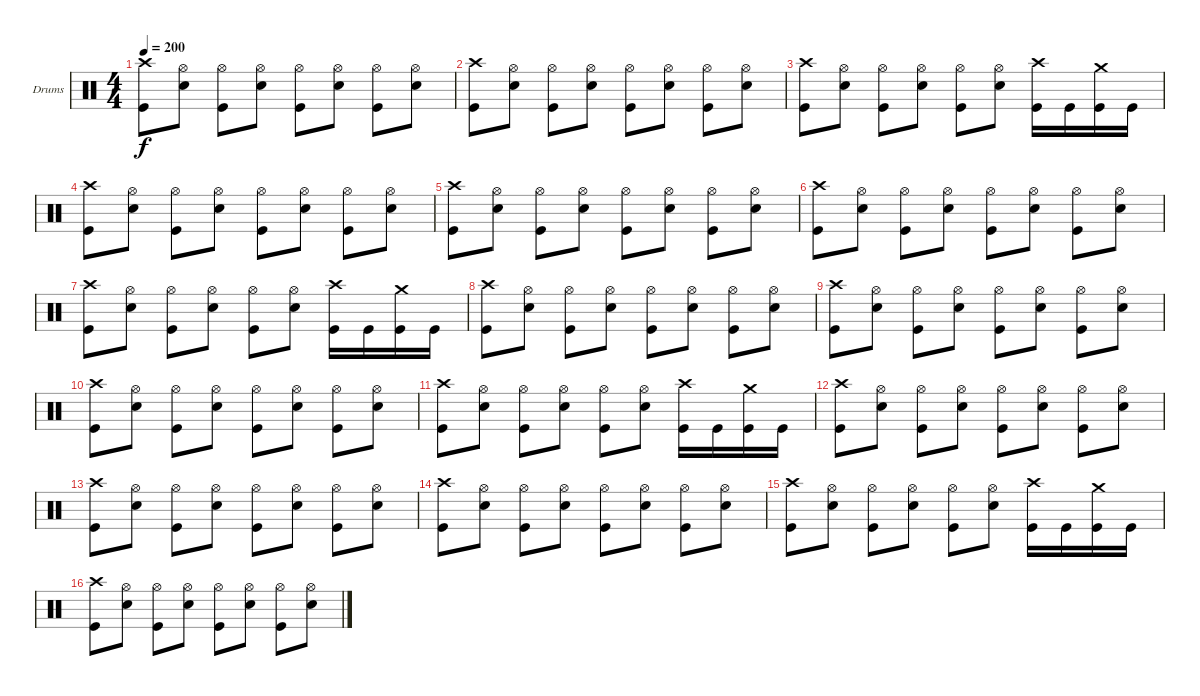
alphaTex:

\bracketExtendMode groupsimilarinstruments
\firstSystemTrackNameOrientation horizontal
\otherSystemsTrackNameOrientation horizontal
\track ("Drumkit" "Drums") {instrument percussion}
\staff {score}
\articulation defaults
\ts (4 4)
\tempo 200
\clef neutral
\ks c
("Crash high (hit)" "Kick (hit)").8{dy f} ("Hi-Hat (open)" "Snare (hit) 2").8 ("Hi-Hat (open)" "Kick (hit)").8 ("Hi-Hat (open)" "Snare (hit) 2").8 ("Hi-Hat (open)" "Kick (hit)").8 ("Hi-Hat (open)" "Snare (hit) 2").8 ("Hi-Hat (open)" "Kick (hit)").8 ("Hi-Hat (open)" "Snare (hit) 2").8 |
("Crash high (hit)" "Kick (hit)").8 ("Hi-Hat (open)" "Snare (hit) 2").8 ("Hi-Hat (open)" "Kick (hit)").8 ("Hi-Hat (open)" "Snare (hit) 2").8 ("Hi-Hat (open)" "Kick (hit)").8 ("Hi-Hat (open)" "Snare (hit) 2").8 ("Hi-Hat (open)" "Kick (hit)").8 ("Hi-Hat (open)" "Snare (hit) 2").8 |
("Crash high (hit)" "Kick (hit)").8 ("Hi-Hat (open)" "Snare (hit) 2").8 ("Hi-Hat (open)" "Kick (hit)").8 ("Hi-Hat (open)" "Snare (hit) 2").8 ("Hi-Hat (open)" "Kick (hit)").8 ("Hi-Hat (open)" "Snare (hit) 2").8 ("Crash high (hit)" "Kick (hit)").16 "Kick (hit)".16 ("Crash medium (hit)" "Kick (hit)").16 "Kick (hit)".16 |
("Crash high (hit)" "Kick (hit)").8 ("Hi-Hat (open)" "Snare (hit) 2").8 ("Hi-Hat (open)" "Kick (hit)").8 ("Hi-Hat (open)" "Snare (hit) 2").8 ("Hi-Hat (open)" "Kick (hit)").8 ("Hi-Hat (open)" "Snare (hit) 2").8 ("Hi-Hat (open)" "Kick (hit)").8 ("Hi-Hat (open)" "Snare (hit) 2").8 |
("Crash high (hit)" "Kick (hit)").8 ("Hi-Hat (open)" "Snare (hit) 2").8 ("Hi-Hat (open)" "Kick (hit)").8 ("Hi-Hat (open)" "Snare (hit) 2").8 ("Hi-Hat (open)" "Kick (hit)").8 ("Hi-Hat (open)" "Snare (hit) 2").8 ("Hi-Hat (open)" "Kick (hit)").8 ("Hi-Hat (open)" "Snare (hit) 2").8 |
("Crash high (hit)" "Kick (hit)").8 ("Hi-Hat (open)" "Snare (hit) 2").8 ("Hi-Hat (open)" "Kick (hit)").8 ("Hi-Hat (open)" "Snare (hit) 2").8 ("Hi-Hat (open)" "Kick (hit)").8 ("Hi-Hat (open)" "Snare (hit) 2").8 ("Hi-Hat (open)" "Kick (hit)").8 ("Hi-Hat (open)" "Snare (hit) 2").8 |
("Crash high (hit)" "Kick (hit)").8 ("Hi-Hat (open)" "Snare (hit) 2").8 ("Hi-Hat (open)" "Kick (hit)").8 ("Hi-Hat (open)" "Snare (hit) 2").8 ("Hi-Hat (open)" "Kick (hit)").8 ("Hi-Hat (open)" "Snare (hit) 2").8 ("Crash high (hit)" "Kick (hit)").16 "Kick (hit)".16 ("Crash medium (hit)" "Kick (hit)").16 "Kick (hit)".16 |
("Crash high (hit)" "Kick (hit)").8 ("Hi-Hat (open)" "Snare (hit) 2").8 ("Hi-Hat (open)" "Kick (hit)").8 ("Hi-Hat (open)" "Snare (hit) 2").8 ("Hi-Hat (open)" "Kick (hit)").8 ("Hi-Hat (open)" "Snare (hit) 2").8 ("Hi-Hat (open)" "Kick (hit)").8 ("Hi-Hat (open)" "Snare (hit) 2").8 |
("Crash high (hit)" "Kick (hit)").8 ("Hi-Hat (open)" "Snare (hit) 2").8 ("Hi-Hat (open)" "Kick (hit)").8 ("Hi-Hat (open)" "Snare (hit) 2").8 ("Hi-Hat (open)" "Kick (hit)").8 ("Hi-Hat (open)" "Snare (hit) 2").8 ("Hi-Hat (open)" "Kick (hit)").8 ("Hi-Hat (open)" "Snare (hit) 2").8 |
("Crash high (hit)" "Kick (hit)").8 ("Hi-Hat (open)" "Snare (hit) 2").8 ("Hi-Hat (open)" "Kick (hit)").8 ("Hi-Hat (open)" "Snare (hit) 2").8 ("Hi-Hat (open)" "Kick (hit)").8 ("Hi-Hat (open)" "Snare (hit) 2").8 ("Hi-Hat (open)" "Kick (hit)").8 ("Hi-Hat (open)" "Snare (hit) 2").8 |
("Crash high (hit)" "Kick (hit)").8 ("Hi-Hat (open)" "Snare (hit) 2").8 ("Hi-Hat (open)" "Kick (hit)").8 ("Hi-Hat (open)" "Snare (hit) 2").8 ("Hi-Hat (open)" "Kick (hit)").8 ("Hi-Hat (open)" "Snare (hit) 2").8 ("Crash high (hit)" "Kick (hit)").16 "Kick (hit)".16 ("Crash medium (hit)" "Kick (hit)").16 "Kick (hit)".16 |
("Crash high (hit)" "Kick (hit)").8 ("Hi-Hat (open)" "Snare (hit) 2").8 ("Hi-Hat (open)" "Kick (hit)").8 ("Hi-Hat (open)" "Snare (hit) 2").8 ("Hi-Hat (open)" "Kick (hit)").8 ("Hi-Hat (open)" "Snare (hit) 2").8 ("Hi-Hat (open)" "Kick (hit)").8 ("Hi-Hat (open)" "Snare (hit) 2").8 |
("Crash high (hit)" "Kick (hit)").8 ("Hi-Hat (open)" "Snare (hit) 2").8 ("Hi-Hat (open)" "Kick (hit)").8 ("Hi-Hat (open)" "Snare (hit) 2").8 ("Hi-Hat (open)" "Kick (hit)").8 ("Hi-Hat (open)" "Snare (hit) 2").8 ("Hi-Hat (open)" "Kick (hit)").8 ("Hi-Hat (open)" "Snare (hit) 2").8 |
("Crash high (hit)" "Kick (hit)").8 ("Hi-Hat (open)" "Snare (hit) 2").8 ("Hi-Hat (open)" "Kick (hit)").8 ("Hi-Hat (open)" "Snare (hit) 2").8 ("Hi-Hat (open)" "Kick (hit)").8 ("Hi-Hat (open)" "Snare (hit) 2").8 ("Hi-Hat (open)" "Kick (hit)").8 ("Hi-Hat (open)" "Snare (hit) 2").8 |
("Crash high (hit)" "Kick (hit)").8 ("Hi-Hat (open)" "Snare (hit) 2").8 ("Hi-Hat (open)" "Kick (hit)").8 ("Hi-Hat (open)" "Snare (hit) 2").8 ("Hi-Hat (open)" "Kick (hit)").8 ("Hi-Hat (open)" "Snare (hit) 2").8 ("Crash high (hit)" "Kick (hit)").16 "Kick (hit)".16 ("Crash medium (hit)" "Kick (hit)").16 "Kick (hit)".16 |
("Crash high (hit)" "Kick (hit)").8 ("Hi-Hat (open)" "Snare (hit) 2").8 ("Hi-Hat (open)" "Kick (hit)").8 ("Hi-Hat (open)" "Snare (hit) 2").8 ("Hi-Hat (open)" "Kick (hit)").8 ("Hi-Hat (open)" "Snare (hit) 2").8 ("Hi-Hat (open)" "Kick (hit)").8 ("Hi-Hat (open)" "Snare (hit) 2").8
